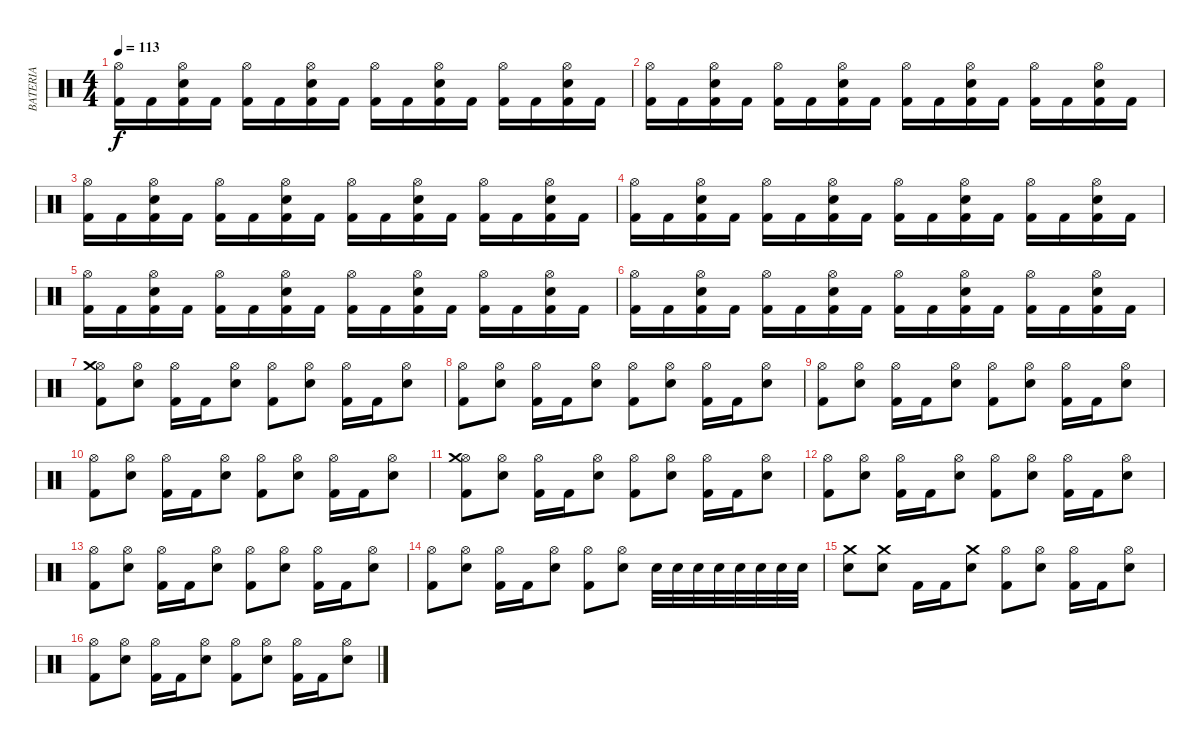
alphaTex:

\track ("BATERIA" "BATERIA") {instrument percussion}
\staff {score}
\articulation defaults
\ts (4 4)
\tempo 113
\clef neutral
\ks c
("Hi-Hat (open)" "Kick (hit) 2").16{dy f} "Kick (hit) 2".16 ("Hi-Hat (open)" "Electric Snare (hit)" "Kick (hit) 2").16 "Kick (hit) 2".16 ("Hi-Hat (open)" "Kick (hit) 2").16 "Kick (hit) 2".16 ("Hi-Hat (open)" "Electric Snare (hit)" "Kick (hit) 2").16 "Kick (hit) 2".16 ("Hi-Hat (open)" "Kick (hit) 2").16 "Kick (hit) 2".16 ("Hi-Hat (open)" "Electric Snare (hit)" "Kick (hit) 2").16 "Kick (hit) 2".16 ("Hi-Hat (open)" "Kick (hit) 2").16 "Kick (hit) 2".16 ("Hi-Hat (open)" "Electric Snare (hit)" "Kick (hit) 2").16 "Kick (hit) 2".16 |
("Hi-Hat (open)" "Kick (hit) 2").16 "Kick (hit) 2".16 ("Hi-Hat (open)" "Electric Snare (hit)" "Kick (hit) 2").16 "Kick (hit) 2".16 ("Hi-Hat (open)" "Kick (hit) 2").16 "Kick (hit) 2".16 ("Hi-Hat (open)" "Electric Snare (hit)" "Kick (hit) 2").16 "Kick (hit) 2".16 ("Hi-Hat (open)" "Kick (hit) 2").16 "Kick (hit) 2".16 ("Hi-Hat (open)" "Electric Snare (hit)" "Kick (hit) 2").16 "Kick (hit) 2".16 ("Hi-Hat (open)" "Kick (hit) 2").16 "Kick (hit) 2".16 ("Hi-Hat (open)" "Electric Snare (hit)" "Kick (hit) 2").16 "Kick (hit) 2".16 |
("Hi-Hat (open)" "Kick (hit) 2").16 "Kick (hit) 2".16 ("Hi-Hat (open)" "Electric Snare (hit)" "Kick (hit) 2").16 "Kick (hit) 2".16 ("Hi-Hat (open)" "Kick (hit) 2").16 "Kick (hit) 2".16 ("Hi-Hat (open)" "Electric Snare (hit)" "Kick (hit) 2").16 "Kick (hit) 2".16 ("Hi-Hat (open)" "Kick (hit) 2").16 "Kick (hit) 2".16 ("Hi-Hat (open)" "Electric Snare (hit)" "Kick (hit) 2").16 "Kick (hit) 2".16 ("Hi-Hat (open)" "Kick (hit) 2").16 "Kick (hit) 2".16 ("Hi-Hat (open)" "Electric Snare (hit)" "Kick (hit) 2").16 "Kick (hit) 2".16 |
("Hi-Hat (open)" "Kick (hit) 2").16 "Kick (hit) 2".16 ("Hi-Hat (open)" "Electric Snare (hit)" "Kick (hit) 2").16 "Kick (hit) 2".16 ("Hi-Hat (open)" "Kick (hit) 2").16 "Kick (hit) 2".16 ("Hi-Hat (open)" "Electric Snare (hit)" "Kick (hit) 2").16 "Kick (hit) 2".16 ("Hi-Hat (open)" "Kick (hit) 2").16 "Kick (hit) 2".16 ("Hi-Hat (open)" "Electric Snare (hit)" "Kick (hit) 2").16 "Kick (hit) 2".16 ("Hi-Hat (open)" "Kick (hit) 2").16 "Kick (hit) 2".16 ("Hi-Hat (open)" "Electric Snare (hit)" "Kick (hit) 2").16 "Kick (hit) 2".16 |
("Hi-Hat (open)" "Kick (hit) 2").16 "Kick (hit) 2".16 ("Hi-Hat (open)" "Electric Snare (hit)" "Kick (hit) 2").16 "Kick (hit) 2".16 ("Hi-Hat (open)" "Kick (hit) 2").16 "Kick (hit) 2".16 ("Hi-Hat (open)" "Electric Snare (hit)" "Kick (hit) 2").16 "Kick (hit) 2".16 ("Hi-Hat (open)" "Kick (hit) 2").16 "Kick (hit) 2".16 ("Hi-Hat (open)" "Electric Snare (hit)" "Kick (hit) 2").16 "Kick (hit) 2".16 ("Hi-Hat (open)" "Kick (hit) 2").16 "Kick (hit) 2".16 ("Hi-Hat (open)" "Electric Snare (hit)" "Kick (hit) 2").16 "Kick (hit) 2".16 |
("Hi-Hat (open)" "Kick (hit) 2").16 "Kick (hit) 2".16 ("Hi-Hat (open)" "Electric Snare (hit)" "Kick (hit) 2").16 "Kick (hit) 2".16 ("Hi-Hat (open)" "Kick (hit) 2").16 "Kick (hit) 2".16 ("Hi-Hat (open)" "Electric Snare (hit)" "Kick (hit) 2").16 "Kick (hit) 2".16 ("Hi-Hat (open)" "Kick (hit) 2").16 "Kick (hit) 2".16 ("Hi-Hat (open)" "Electric Snare (hit)" "Kick (hit) 2").16 "Kick (hit) 2".16 ("Hi-Hat (open)" "Kick (hit) 2").16 "Kick (hit) 2".16 ("Hi-Hat (open)" "Electric Snare (hit)" "Kick (hit) 2").16 "Kick (hit) 2".16 |
("Hi-Hat (open)" "Kick (hit) 2" "Crash medium (hit)").8 ("Hi-Hat (open)" "Electric Snare (hit)").8 ("Hi-Hat (open)" "Kick (hit) 2").16 "Kick (hit) 2".16 ("Hi-Hat (open)" "Electric Snare (hit)").8 ("Hi-Hat (open)" "Kick (hit) 2").8 ("Hi-Hat (open)" "Electric Snare (hit)").8 ("Hi-Hat (open)" "Kick (hit) 2").16 "Kick (hit) 2".16 ("Hi-Hat (open)" "Electric Snare (hit)").8 |
("Hi-Hat (open)" "Kick (hit) 2").8 ("Hi-Hat (open)" "Electric Snare (hit)").8 ("Hi-Hat (open)" "Kick (hit) 2").16 "Kick (hit) 2".16 ("Hi-Hat (open)" "Electric Snare (hit)").8 ("Hi-Hat (open)" "Kick (hit) 2").8 ("Hi-Hat (open)" "Electric Snare (hit)").8 ("Hi-Hat (open)" "Kick (hit) 2").16 "Kick (hit) 2".16 ("Hi-Hat (open)" "Electric Snare (hit)").8 |
("Hi-Hat (open)" "Kick (hit) 2").8 ("Hi-Hat (open)" "Electric Snare (hit)").8 ("Hi-Hat (open)" "Kick (hit) 2").16 "Kick (hit) 2".16 ("Hi-Hat (open)" "Electric Snare (hit)").8 ("Hi-Hat (open)" "Kick (hit) 2").8 ("Hi-Hat (open)" "Electric Snare (hit)").8 ("Hi-Hat (open)" "Kick (hit) 2").16 "Kick (hit) 2".16 ("Hi-Hat (open)" "Electric Snare (hit)").8 |
("Hi-Hat (open)" "Kick (hit) 2").8 ("Hi-Hat (open)" "Electric Snare (hit)").8 ("Hi-Hat (open)" "Kick (hit) 2").16 "Kick (hit) 2".16 ("Hi-Hat (open)" "Electric Snare (hit)").8 ("Hi-Hat (open)" "Kick (hit) 2").8 ("Hi-Hat (open)" "Electric Snare (hit)").8 ("Hi-Hat (open)" "Kick (hit) 2").16 "Kick (hit) 2".16 ("Hi-Hat (open)" "Electric Snare (hit)").8 |
("Hi-Hat (open)" "Kick (hit) 2" "Crash medium (hit)").8 ("Hi-Hat (open)" "Electric Snare (hit)").8 ("Hi-Hat (open)" "Kick (hit) 2").16 "Kick (hit) 2".16 ("Hi-Hat (open)" "Electric Snare (hit)").8 ("Hi-Hat (open)" "Kick (hit) 2").8 ("Hi-Hat (open)" "Electric Snare (hit)").8 ("Hi-Hat (open)" "Kick (hit) 2").16 "Kick (hit) 2".16 ("Hi-Hat (open)" "Electric Snare (hit)").8 |
("Hi-Hat (open)" "Kick (hit) 2").8 ("Hi-Hat (open)" "Electric Snare (hit)").8 ("Hi-Hat (open)" "Kick (hit) 2").16 "Kick (hit) 2".16 ("Hi-Hat (open)" "Electric Snare (hit)").8 ("Hi-Hat (open)" "Kick (hit) 2").8 ("Hi-Hat (open)" "Electric Snare (hit)").8 ("Hi-Hat (open)" "Kick (hit) 2").16 "Kick (hit) 2".16 ("Hi-Hat (open)" "Electric Snare (hit)").8 |
("Hi-Hat (open)" "Kick (hit) 2").8 ("Hi-Hat (open)" "Electric Snare (hit)").8 ("Hi-Hat (open)" "Kick (hit) 2").16 "Kick (hit) 2".16 ("Hi-Hat (open)" "Electric Snare (hit)").8 ("Hi-Hat (open)" "Kick (hit) 2").8 ("Hi-Hat (open)" "Electric Snare (hit)").8 ("Hi-Hat (open)" "Kick (hit) 2").16 "Kick (hit) 2".16 ("Hi-Hat (open)" "Electric Snare (hit)").8 |
("Hi-Hat (open)" "Kick (hit) 2").8 ("Hi-Hat (open)" "Electric Snare (hit)").8 ("Hi-Hat (open)" "Kick (hit) 2").16 "Kick (hit) 2".16 ("Hi-Hat (open)" "Electric Snare (hit)").8 ("Hi-Hat (open)" "Kick (hit) 2").8 ("Hi-Hat (open)" "Electric Snare (hit)").8 "Electric Snare (hit)".32 "Electric Snare (hit)".32 "Electric Snare (hit)".32 "Electric Snare (hit)".32 "Electric Snare (hit)".32 "Electric Snare (hit)".32 "Electric Snare (hit)".32 "Electric Snare (hit)".32 |
("Crash medium (hit)" "Electric Snare (hit)").8 ("Crash medium (hit)" "Electric Snare (hit)").8 "Kick (hit) 2".16 "Kick (hit) 2".16 ("Crash medium (hit)" "Electric Snare (hit)").8 ("Hi-Hat (open)" "Kick (hit) 2").8 ("Hi-Hat (open)" "Electric Snare (hit)").8 ("Hi-Hat (open)" "Kick (hit) 2").16 "Kick (hit) 2".16 ("Hi-Hat (open)" "Electric Snare (hit)").8 |
("Hi-Hat (open)" "Kick (hit) 2").8 ("Hi-Hat (open)" "Electric Snare (hit)").8 ("Hi-Hat (open)" "Kick (hit) 2").16 "Kick (hit) 2".16 ("Hi-Hat (open)" "Electric Snare (hit)").8 ("Hi-Hat (open)" "Kick (hit) 2").8 ("Hi-Hat (open)" "Electric Snare (hit)").8 ("Hi-Hat (open)" "Kick (hit) 2").16 "Kick (hit) 2".16 ("Hi-Hat (open)" "Electric Snare (hit)").8
